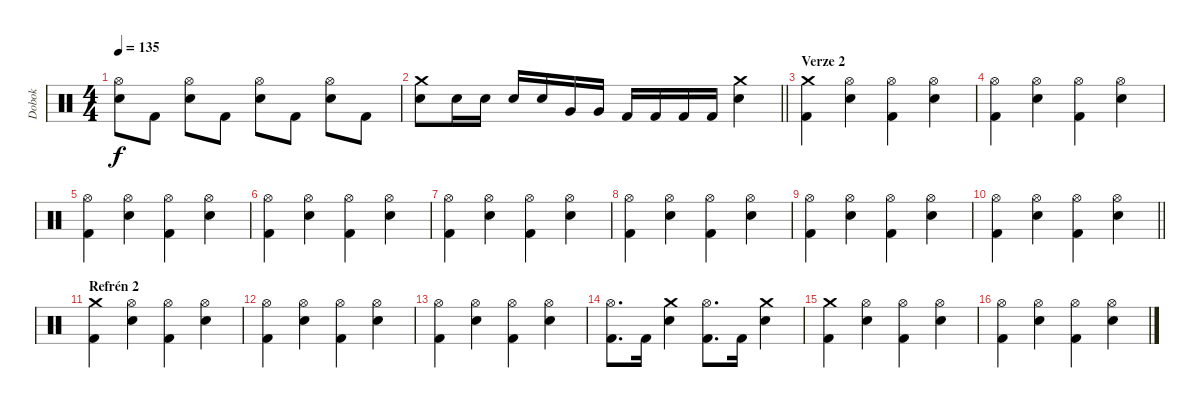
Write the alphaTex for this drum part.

\track ("Dobok" "Dobok") {instrument percussion}
\staff {score}
\articulation defaults
\ts (4 4)
\tempo 135
\clef neutral
\ks c
("Hi-Hat (open)" "Electric Snare (hit)").8{dy f} "Kick (hit) 2".8 ("Hi-Hat (open)" "Electric Snare (hit)").8 "Kick (hit) 2".8 ("Hi-Hat (open)" "Electric Snare (hit)").8 "Kick (hit) 2".8 ("Hi-Hat (open)" "Electric Snare (hit)").8 "Kick (hit) 2".8 |
\barLineRight lightlight
("Crash medium (hit)" "Electric Snare (hit)").8 "Electric Snare (hit)".16 "Electric Snare (hit)".16 "Electric Snare (hit)".16 "Electric Snare (hit)".16 "Very Low Tom (hit)".16 "Very Low Tom (hit)".16 "Kick (hit) 2".16 "Kick (hit) 2".16 "Kick (hit) 2".16 "Kick (hit) 2".16 ("Crash medium (hit)" "Electric Snare (hit)").4 |
\section ("" "Verze 2")
("Crash medium (hit)" "Kick (hit) 2").4 ("Hi-Hat (open)" "Electric Snare (hit)").4 ("Hi-Hat (open)" "Kick (hit) 2").4 ("Hi-Hat (open)" "Electric Snare (hit)").4 |
("Hi-Hat (open)" "Kick (hit) 2").4 ("Hi-Hat (open)" "Electric Snare (hit)").4 ("Hi-Hat (open)" "Kick (hit) 2").4 ("Hi-Hat (open)" "Electric Snare (hit)").4 |
("Hi-Hat (open)" "Kick (hit) 2").4 ("Hi-Hat (open)" "Electric Snare (hit)").4 ("Hi-Hat (open)" "Kick (hit) 2").4 ("Hi-Hat (open)" "Electric Snare (hit)").4 |
("Hi-Hat (open)" "Kick (hit) 2").4 ("Hi-Hat (open)" "Electric Snare (hit)").4 ("Hi-Hat (open)" "Kick (hit) 2").4 ("Hi-Hat (open)" "Electric Snare (hit)").4 |
("Hi-Hat (open)" "Kick (hit) 2").4 ("Hi-Hat (open)" "Electric Snare (hit)").4 ("Hi-Hat (open)" "Kick (hit) 2").4 ("Hi-Hat (open)" "Electric Snare (hit)").4 |
("Hi-Hat (open)" "Kick (hit) 2").4 ("Hi-Hat (open)" "Electric Snare (hit)").4 ("Hi-Hat (open)" "Kick (hit) 2").4 ("Hi-Hat (open)" "Electric Snare (hit)").4 |
("Hi-Hat (open)" "Kick (hit) 2").4 ("Hi-Hat (open)" "Electric Snare (hit)").4 ("Hi-Hat (open)" "Kick (hit) 2").4 ("Hi-Hat (open)" "Electric Snare (hit)").4 |
\barLineRight lightlight
("Hi-Hat (open)" "Kick (hit) 2").4 ("Hi-Hat (open)" "Electric Snare (hit)").4 ("Hi-Hat (open)" "Kick (hit) 2").4 ("Hi-Hat (open)" "Electric Snare (hit)").4 |
\section ("" "Refrén 2")
("Crash medium (hit)" "Kick (hit) 2").4 ("Hi-Hat (open)" "Electric Snare (hit)").4 ("Hi-Hat (open)" "Kick (hit) 2").4 ("Hi-Hat (open)" "Electric Snare (hit)").4 |
("Hi-Hat (open)" "Kick (hit) 2").4 ("Hi-Hat (open)" "Electric Snare (hit)").4 ("Hi-Hat (open)" "Kick (hit) 2").4 ("Hi-Hat (open)" "Electric Snare (hit)").4 |
("Hi-Hat (open)" "Kick (hit) 2").4 ("Hi-Hat (open)" "Electric Snare (hit)").4 ("Hi-Hat (open)" "Kick (hit) 2").4 ("Hi-Hat (open)" "Electric Snare (hit)").4 |
("Hi-Hat (open)" "Kick (hit) 2").8{d} "Kick (hit) 2".16 ("Crash medium (hit)" "Electric Snare (hit)").4 ("Hi-Hat (open)" "Kick (hit) 2").8{d} "Kick (hit) 2".16 ("Crash medium (hit)" "Electric Snare (hit)").4 |
("Crash medium (hit)" "Kick (hit) 2").4 ("Hi-Hat (open)" "Electric Snare (hit)").4 ("Hi-Hat (open)" "Kick (hit) 2").4 ("Hi-Hat (open)" "Electric Snare (hit)").4 |
("Hi-Hat (open)" "Kick (hit) 2").4 ("Hi-Hat (open)" "Electric Snare (hit)").4 ("Hi-Hat (open)" "Kick (hit) 2").4 ("Hi-Hat (open)" "Electric Snare (hit)").4
